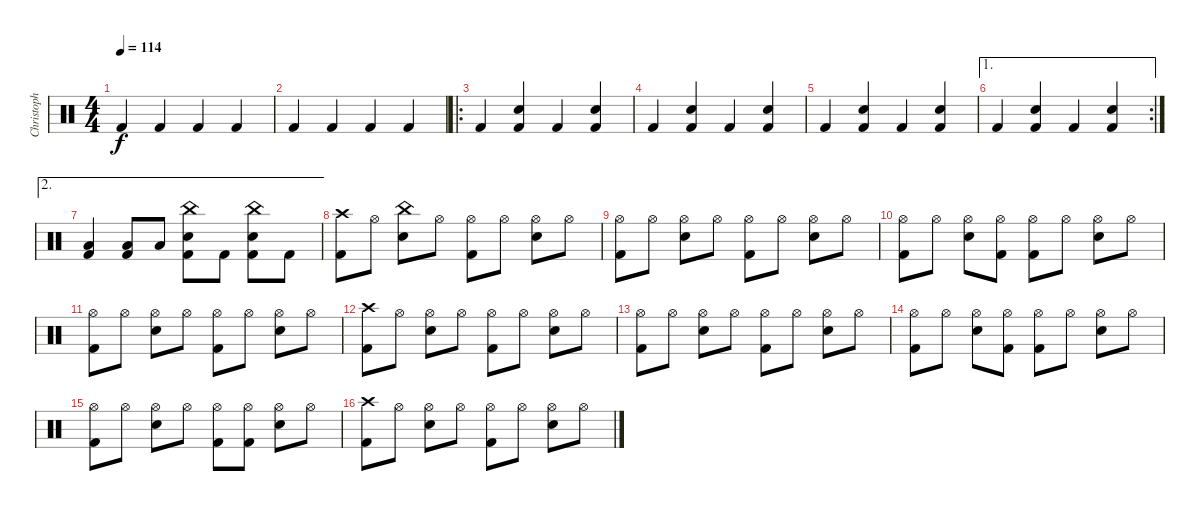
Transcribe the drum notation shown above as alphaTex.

\track ("Christoph" "Christoph") {instrument percussion}
\staff {score}
\articulation defaults
\ts (4 4)
\tempo 114
\clef neutral
\ks c "Kick (hit) 2".4{dy f} "Kick (hit) 2".4 "Kick (hit) 2".4 "Kick (hit) 2".4
|
"Kick (hit) 2".4 "Kick (hit) 2".4 "Kick (hit) 2".4 "Kick (hit) 2".4 |
\ro "Kick (hit) 2".4
("Electric Snare (hit)" "Kick (hit) 2").4 "Kick (hit) 2".4 ("Electric Snare (hit)" "Kick (hit) 2").4 |
"Kick (hit) 2".4 ("Electric Snare (hit)" "Kick (hit) 2").4 "Kick (hit) 2".4 ("Electric Snare (hit)" "Kick (hit) 2").4 |
"Kick (hit) 2".4 ("Electric Snare (hit)" "Kick (hit) 2").4 "Kick (hit) 2".4 ("Electric Snare (hit)" "Kick (hit) 2").4 |
\ae 1
\rc 2 "Kick (hit) 2".4
("Electric Snare (hit)" "Kick (hit) 2").4 "Kick (hit) 2".4 ("Electric Snare (hit)" "Kick (hit) 2").4 |
\ae 2
("Low Floor Tom (hit)" "Kick (hit) 2").4 ("Low Floor Tom (hit)" "Kick (hit) 2").8 "Low Floor Tom (hit)".8 ("China (hit)" "Electric Snare (hit)" "Kick (hit) 2").8 "Kick (hit) 2".8 ("China (hit)" "Electric Snare (hit)" "Kick (hit) 2").8 "Kick (hit) 2".8 |
("Crash high (hit)" "Kick (hit) 2").8 "Hi-Hat (open)".8 ("China (hit)" "Electric Snare (hit)").8 "Hi-Hat (open)".8 ("Hi-Hat (open)" "Kick (hit) 2").8 "Hi-Hat (open)".8 ("Hi-Hat (open)" "Electric Snare (hit)").8 "Hi-Hat (open)".8 |
("Hi-Hat (open)" "Kick (hit) 2").8 "Hi-Hat (open)".8 ("Hi-Hat (open)" "Electric Snare (hit)").8 "Hi-Hat (open)".8 ("Hi-Hat (open)" "Kick (hit) 2").8 "Hi-Hat (open)".8 ("Hi-Hat (open)" "Electric Snare (hit)").8 "Hi-Hat (open)".8 |
("Hi-Hat (open)" "Kick (hit) 2").8 "Hi-Hat (open)".8 ("Hi-Hat (open)" "Electric Snare (hit)").8 ("Hi-Hat (open)" "Kick (hit) 2").8 ("Hi-Hat (open)" "Kick (hit) 2").8 "Hi-Hat (open)".8 ("Hi-Hat (open)" "Electric Snare (hit)").8 "Hi-Hat (open)".8 |
("Hi-Hat (open)" "Kick (hit) 2").8 "Hi-Hat (open)".8 ("Hi-Hat (open)" "Electric Snare (hit)").8 "Hi-Hat (open)".8 ("Hi-Hat (open)" "Kick (hit) 2").8 "Hi-Hat (open)".8 ("Hi-Hat (open)" "Electric Snare (hit)").8 "Hi-Hat (open)".8 |
("Crash high (hit)" "Kick (hit) 2").8 "Hi-Hat (open)".8 ("Hi-Hat (open)" "Electric Snare (hit)").8 "Hi-Hat (open)".8 ("Hi-Hat (open)" "Kick (hit) 2").8 "Hi-Hat (open)".8 ("Hi-Hat (open)" "Electric Snare (hit)").8 "Hi-Hat (open)".8 |
("Hi-Hat (open)" "Kick (hit) 2").8 "Hi-Hat (open)".8 ("Hi-Hat (open)" "Electric Snare (hit)").8 "Hi-Hat (open)".8 ("Hi-Hat (open)" "Kick (hit) 2").8 "Hi-Hat (open)".8 ("Hi-Hat (open)" "Electric Snare (hit)").8 "Hi-Hat (open)".8 |
("Hi-Hat (open)" "Kick (hit) 2").8 "Hi-Hat (open)".8 ("Hi-Hat (open)" "Electric Snare (hit)").8 ("Hi-Hat (open)" "Kick (hit) 2").8 ("Hi-Hat (open)" "Kick (hit) 2").8 "Hi-Hat (open)".8 ("Hi-Hat (open)" "Electric Snare (hit)").8 "Hi-Hat (open)".8 |
("Hi-Hat (open)" "Kick (hit) 2").8 "Hi-Hat (open)".8 ("Hi-Hat (open)" "Electric Snare (hit)").8 "Hi-Hat (open)".8 ("Hi-Hat (open)" "Kick (hit) 2").8 ("Hi-Hat (open)" "Kick (hit) 2").8 ("Hi-Hat (open)" "Electric Snare (hit)").8 "Hi-Hat (open)".8 |
("Crash high (hit)" "Kick (hit) 2").8 "Hi-Hat (open)".8 ("Hi-Hat (open)" "Electric Snare (hit)").8 "Hi-Hat (open)".8 ("Hi-Hat (open)" "Kick (hit) 2").8 "Hi-Hat (open)".8 ("Hi-Hat (open)" "Electric Snare (hit)").8 "Hi-Hat (open)".8
